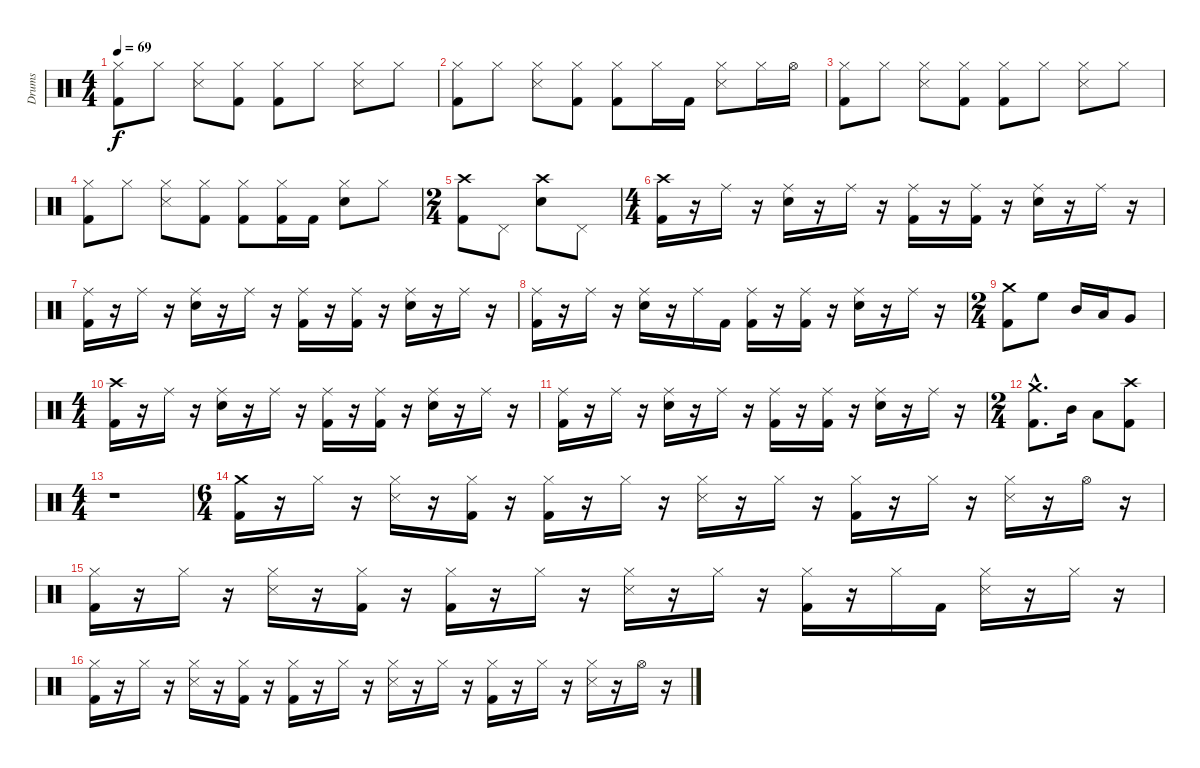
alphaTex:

\track ("Drums" "Drums") {instrument percussion}
\staff {score}
\articulation defaults
\ts (4 4)
\tempo 69
\clef neutral
\ks c
("Hi-Hat (closed)" "Kick (hit) 2").8{dy f} "Hi-Hat (closed)".8 ("Hi-Hat (closed)" "Snare (side stick) 3").8 ("Hi-Hat (closed)" "Kick (hit) 2").8 ("Hi-Hat (closed)" "Kick (hit) 2").8 "Hi-Hat (closed)".8 ("Hi-Hat (closed)" "Snare (side stick) 3").8 "Hi-Hat (closed)".8 |
("Hi-Hat (closed)" "Kick (hit) 2").8 "Hi-Hat (closed)".8 ("Hi-Hat (closed)" "Snare (side stick) 3").8 ("Hi-Hat (closed)" "Kick (hit) 2").8 ("Hi-Hat (closed)" "Kick (hit) 2").8 "Hi-Hat (closed)".16 "Kick (hit) 2".16 ("Hi-Hat (closed)" "Snare (side stick) 3").8 "Hi-Hat (closed)".16 "Hi-Hat (open)".16 |
("Hi-Hat (closed)" "Kick (hit) 2").8 "Hi-Hat (closed)".8 ("Hi-Hat (closed)" "Snare (side stick) 3").8 ("Hi-Hat (closed)" "Kick (hit) 2").8 ("Hi-Hat (closed)" "Kick (hit) 2").8 "Hi-Hat (closed)".8 ("Hi-Hat (closed)" "Snare (side stick) 3").8 "Hi-Hat (closed)".8 |
("Hi-Hat (closed)" "Kick (hit) 2").8 "Hi-Hat (closed)".8 ("Hi-Hat (closed)" "Snare (side stick) 3").8 ("Hi-Hat (closed)" "Kick (hit) 2").8 ("Hi-Hat (closed)" "Kick (hit) 2").8 ("Hi-Hat (closed)" "Kick (hit) 2").16 "Kick (hit) 2".16 ("Hi-Hat (closed)" "Snare (hit) 2").8 "Hi-Hat (closed)".8 |
\ts (2 4)
("Crash high (hit)" "Kick (hit) 2").8 "Pedal Hi-Hat (hit)".8 ("Crash high (hit)" "Snare (hit) 2").8 "Pedal Hi-Hat (hit)".8 |
\ts (4 4)
("Crash high (hit)" "Kick (hit) 2").16 r.16 "Ride (middle)".16 r.16 ("Ride (middle)" "Snare (hit) 2").16 r.16 "Ride (middle)".16 r.16 ("Ride (middle)" "Kick (hit) 2").16 r.16 ("Ride (middle)" "Kick (hit) 2").16 r.16 ("Ride (middle)" "Snare (hit) 2").16 r.16 "Ride (middle)".16 r.16 |
("Ride (middle)" "Kick (hit) 2").16 r.16 "Ride (middle)".16 r.16 ("Ride (middle)" "Snare (hit) 2").16 r.16 "Ride (middle)".16 r.16 ("Ride (middle)" "Kick (hit) 2").16 r.16 ("Ride (middle)" "Kick (hit) 2").16 r.16 ("Ride (middle)" "Snare (hit) 2").16 r.16 "Ride (middle)".16 r.16 |
("Ride (middle)" "Kick (hit) 2").16 r.16 "Ride (middle)".16 r.16 ("Ride (middle)" "Snare (hit) 2").16 r.16 "Ride (middle)".16 "Kick (hit) 2".16 ("Ride (middle)" "Kick (hit) 2").16 r.16 ("Ride (middle)" "Kick (hit) 2").16 r.16 ("Ride (middle)" "Snare (hit) 2").16 r.16 "Ride (middle)".16 r.16 |
\ts (2 4)
("Crash medium (hit)" "Kick (hit) 2").8 "High Floor Tom (hit)".8 "Mid Tom (hit)".16 "Low Tom (hit)".16 "Very Low Tom (hit)".8 |
\ts (4 4)
("Crash high (hit)" "Kick (hit) 2").16 r.16 "Ride (middle)".16 r.16 ("Ride (middle)" "Snare (hit) 2").16 r.16 "Ride (middle)".16 r.16 ("Ride (middle)" "Kick (hit) 2").16 r.16 ("Ride (middle)" "Kick (hit) 2").16 r.16 ("Ride (middle)" "Snare (hit) 2").16 r.16 "Ride (middle)".16 r.16 |
("Ride (middle)" "Kick (hit) 2").16 r.16 "Ride (middle)".16 r.16 ("Ride (middle)" "Snare (hit) 2").16 r.16 "Ride (middle)".16 r.16 ("Ride (middle)" "Kick (hit) 2").16 r.16 ("Ride (middle)" "Kick (hit) 2").16 r.16 ("Ride (middle)" "Snare (hit) 2").16 r.16 "Ride (middle)".16 r.16 |
\ts (2 4)
("Crash medium (hit)"{hac} "Kick (hit) 2"{hac}).8{d} "Mid Tom (hit)".16 "Low Tom (hit)".8 ("Crash high (hit)" "Kick (hit) 2").8 |
\ts (4 4)
r.1 |
\ts (6 4)
("Crash medium (hit)" "Kick (hit) 2").16 r.16 "Hi-Hat (closed)".16 r.16 ("Hi-Hat (closed)" "Snare (side stick) 3").16 r.16 ("Hi-Hat (closed)" "Kick (hit) 2").16 r.16 ("Hi-Hat (closed)" "Kick (hit) 2").16 r.16 "Hi-Hat (closed)".16 r.16 ("Hi-Hat (closed)" "Snare (side stick) 3").16 r.16 "Hi-Hat (closed)".16 r.16 ("Hi-Hat (closed)" "Kick (hit) 2").16 r.16 "Hi-Hat (closed)".16 r.16 ("Hi-Hat (closed)" "Snare (side stick) 3").16 r.16 "Hi-Hat (open)".16 r.16 |
("Hi-Hat (closed)" "Kick (hit) 2").16 r.16 "Hi-Hat (closed)".16 r.16 ("Hi-Hat (closed)" "Snare (side stick) 3").16 r.16 ("Hi-Hat (closed)" "Kick (hit) 2").16 r.16 ("Hi-Hat (closed)" "Kick (hit) 2").16 r.16 "Hi-Hat (closed)".16 r.16 ("Hi-Hat (closed)" "Snare (side stick) 3").16 r.16 "Hi-Hat (closed)".16 r.16 ("Hi-Hat (closed)" "Kick (hit) 2").16 r.16 "Hi-Hat (closed)".16 "Kick (hit) 2".16 ("Hi-Hat (closed)" "Snare (side stick) 3").16 r.16 "Hi-Hat (closed)".16 r.16 |
("Hi-Hat (closed)" "Kick (hit) 2").16 r.16 "Hi-Hat (closed)".16 r.16 ("Hi-Hat (closed)" "Snare (side stick) 3").16 r.16 ("Hi-Hat (closed)" "Kick (hit) 2").16 r.16 ("Hi-Hat (closed)" "Kick (hit) 2").16 r.16 "Hi-Hat (closed)".16 r.16 ("Hi-Hat (closed)" "Snare (side stick) 3").16 r.16 "Hi-Hat (closed)".16 r.16 ("Hi-Hat (closed)" "Kick (hit) 2").16 r.16 "Hi-Hat (closed)".16 r.16 ("Hi-Hat (closed)" "Snare (side stick) 3").16 r.16 "Hi-Hat (open)".16 r.16
